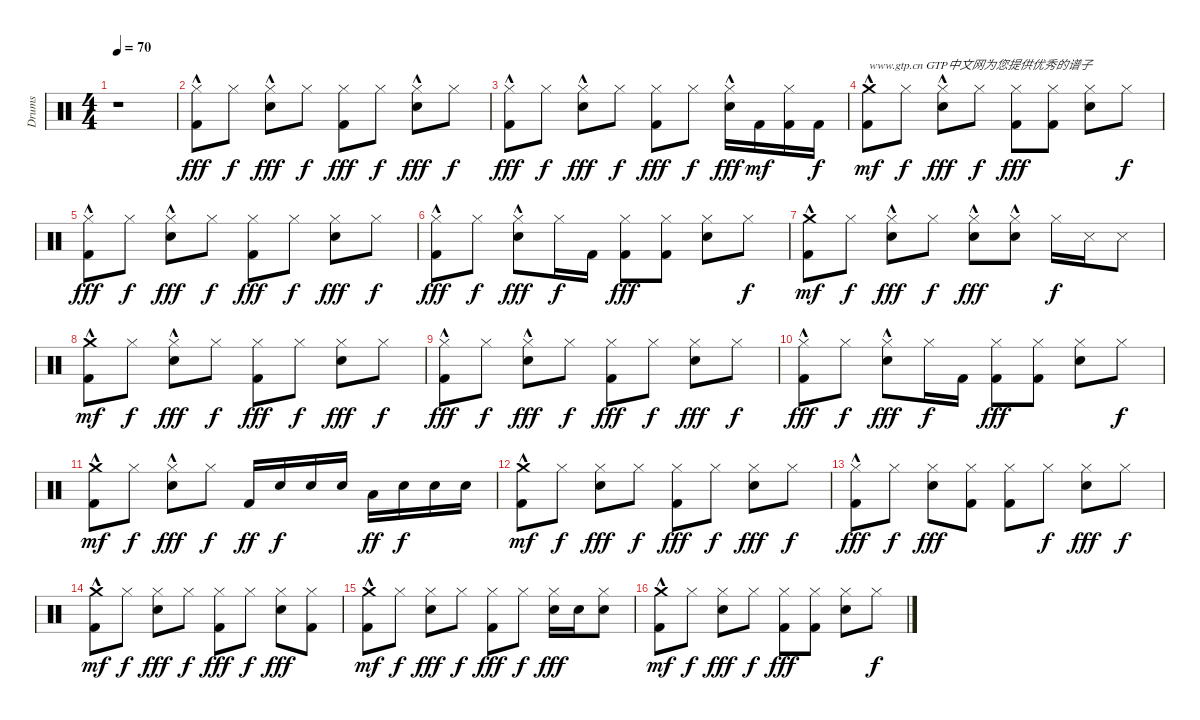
\track ("Drums" "Drums") {instrument percussion}
\staff {score}
\articulation defaults
\ts (4 4)
\tempo 70
\clef neutral
\ks c
r.1{dy fff} |
("Kick (hit) 2"{hac} "Hi-Hat (closed)").8 "Hi-Hat (closed)".8{dy f} ("Hi-Hat (closed)" "Snare (hit) 2"{hac}).8{dy fff} "Hi-Hat (closed)".8{dy f} ("Hi-Hat (closed)" "Kick (hit) 2").8{dy fff} "Hi-Hat (closed)".8{dy f} ("Snare (hit) 2"{hac} "Hi-Hat (closed)").8{dy fff} "Hi-Hat (closed)".8{dy f} |
("Kick (hit) 2"{hac} "Hi-Hat (closed)").8{dy fff} "Hi-Hat (closed)".8{dy f} ("Hi-Hat (closed)" "Snare (hit) 2"{hac}).8{dy fff} "Hi-Hat (closed)".8{dy f} ("Hi-Hat (closed)" "Kick (hit) 2").8{dy fff} "Hi-Hat (closed)".8{dy f} ("Snare (hit) 2"{hac} "Hi-Hat (closed)").16{dy fff} "Kick (hit) 2".16{dy mf} ("Kick (hit) 2" "Hi-Hat (closed)").16 "Kick (hit) 2".16{dy f} |
("Kick (hit) 2"{hac} "Crash medium (hit)").8{txt "www.gtp.cn GTP中文网为您提供优秀的谱子" dy mf} "Hi-Hat (closed)".8{dy f} ("Snare (hit) 2"{hac} "Hi-Hat (closed)").8{dy fff} "Hi-Hat (closed)".8{dy f} ("Kick (hit) 2" "Hi-Hat (closed)").8{dy fff} ("Kick (hit) 2" "Hi-Hat (closed)").8 ("Hi-Hat (closed)" "Snare (hit) 2").8 "Hi-Hat (closed)".8{dy f} |
("Kick (hit) 2"{hac} "Hi-Hat (closed)").8{dy fff} "Hi-Hat (closed)".8{dy f} ("Snare (hit) 2"{hac} "Hi-Hat (closed)").8{dy fff} "Hi-Hat (closed)".8{dy f} ("Kick (hit) 2" "Hi-Hat (closed)").8{dy fff} "Hi-Hat (closed)".8{dy f} ("Hi-Hat (closed)" "Snare (hit) 2").8{dy fff} "Hi-Hat (closed)".8{dy f} |
("Kick (hit) 2"{hac} "Hi-Hat (closed)").8{dy fff} "Hi-Hat (closed)".8{dy f} ("Snare (hit) 2"{hac} "Hi-Hat (closed)").8{dy fff} "Hi-Hat (closed)".16{dy f} "Kick (hit) 2".16 ("Kick (hit) 2" "Hi-Hat (closed)").8{dy fff} ("Kick (hit) 2" "Hi-Hat (closed)").8 ("Hi-Hat (closed)" "Snare (hit) 2").8 "Hi-Hat (closed)".8{dy f} |
("Kick (hit) 2"{hac} "Crash medium (hit)").8{dy mf} "Hi-Hat (closed)".8{dy f} ("Snare (hit) 2"{hac} "Hi-Hat (closed)").8{dy fff} "Hi-Hat (closed)".8{dy f} ("Snare (hit) 2"{hac} "Hi-Hat (closed)").8{dy fff} ("Snare (hit) 2"{hac} "Hi-Hat (closed)").8 "Hi-Hat (closed)".16{dy f} "Snare (side stick) 3".16 "Snare (side stick) 3".8 |
("Kick (hit) 2"{hac} "Crash medium (hit)").8{dy mf} "Hi-Hat (closed)".8{dy f} ("Snare (hit) 2"{hac} "Hi-Hat (closed)").8{dy fff} "Hi-Hat (closed)".8{dy f} ("Kick (hit) 2" "Hi-Hat (closed)").8{dy fff} "Hi-Hat (closed)".8{dy f} ("Hi-Hat (closed)" "Snare (hit) 2").8{dy fff} "Hi-Hat (closed)".8{dy f} |
("Kick (hit) 2"{hac} "Hi-Hat (closed)").8{dy fff} "Hi-Hat (closed)".8{dy f} ("Snare (hit) 2"{hac} "Hi-Hat (closed)").8{dy fff} "Hi-Hat (closed)".8{dy f} ("Kick (hit) 2" "Hi-Hat (closed)").8{dy fff} "Hi-Hat (closed)".8{dy f} ("Hi-Hat (closed)" "Snare (hit) 2").8{dy fff} "Hi-Hat (closed)".8{dy f} |
("Kick (hit) 2"{hac} "Hi-Hat (closed)").8{dy fff} "Hi-Hat (closed)".8{dy f} ("Snare (hit) 2"{hac} "Hi-Hat (closed)").8{dy fff} "Hi-Hat (closed)".16{dy f} "Kick (hit) 2".16 ("Kick (hit) 2" "Hi-Hat (closed)").8{dy fff} ("Kick (hit) 2" "Hi-Hat (closed)").8 ("Hi-Hat (closed)" "Snare (hit) 2").8 "Hi-Hat (closed)".8{dy f} |
("Kick (hit) 2"{hac} "Crash medium (hit)").8{dy mf} "Hi-Hat (closed)".8{dy f} ("Snare (hit) 2"{hac} "Hi-Hat (closed)").8{dy fff} "Hi-Hat (closed)".8{dy f} "Kick (hit) 2".16{dy ff} "Electric Snare (hit)".16{dy f} "Electric Snare (hit)".16 "Electric Snare (hit)".16 "Low Tom (hit)".16{dy ff} "Electric Snare (hit)".16{dy f} "Electric Snare (hit)".16 "Electric Snare (hit)".16 |
("Kick (hit) 2"{hac} "Crash medium (hit)").8{dy mf} "Hi-Hat (closed)".8{dy f} ("Snare (hit) 2" "Hi-Hat (closed)").8{dy fff} "Hi-Hat (closed)".8{dy f} ("Kick (hit) 2" "Hi-Hat (closed)").8{dy fff} "Hi-Hat (closed)".8{dy f} ("Snare (hit) 2" "Hi-Hat (closed)").8{dy fff} "Hi-Hat (closed)".8{dy f} |
("Kick (hit) 2"{hac} "Hi-Hat (closed)").8{dy fff} "Hi-Hat (closed)".8{dy f} ("Snare (hit) 2" "Hi-Hat (closed)").8{dy fff} ("Hi-Hat (closed)" "Kick (hit) 2").8 ("Kick (hit) 2" "Hi-Hat (closed)").8 "Hi-Hat (closed)".8{dy f} ("Snare (hit) 2" "Hi-Hat (closed)").8{dy fff} "Hi-Hat (closed)".8{dy f} |
("Kick (hit) 2"{hac} "Crash medium (hit)").8{dy mf} "Hi-Hat (closed)".8{dy f} ("Snare (hit) 2" "Hi-Hat (closed)").8{dy fff} "Hi-Hat (closed)".8{dy f} ("Kick (hit) 2" "Hi-Hat (closed)").8{dy fff} "Hi-Hat (closed)".8{dy f} ("Snare (hit) 2" "Hi-Hat (closed)").8{dy fff} ("Kick (hit) 2" "Hi-Hat (closed)").8 |
("Kick (hit) 2"{hac} "Crash medium (hit)").8{dy mf} "Hi-Hat (closed)".8{dy f} ("Snare (hit) 2" "Hi-Hat (closed)").8{dy fff} "Hi-Hat (closed)".8{dy f} ("Kick (hit) 2" "Hi-Hat (closed)").8{dy fff} "Hi-Hat (closed)".8{dy f} ("Snare (hit) 2" "Hi-Hat (closed)").16{dy fff} "Snare (hit) 2".16 ("Snare (hit) 2" "Hi-Hat (closed)").8 |
("Kick (hit) 2"{hac} "Crash medium (hit)").8{dy mf} "Hi-Hat (closed)".8{dy f} ("Snare (hit) 2" "Hi-Hat (closed)").8{dy fff} "Hi-Hat (closed)".8{dy f} ("Kick (hit) 2" "Hi-Hat (closed)").8{dy fff} ("Kick (hit) 2" "Hi-Hat (closed)").8 ("Snare (hit) 2" "Hi-Hat (closed)").8 "Hi-Hat (closed)".8{dy f}
